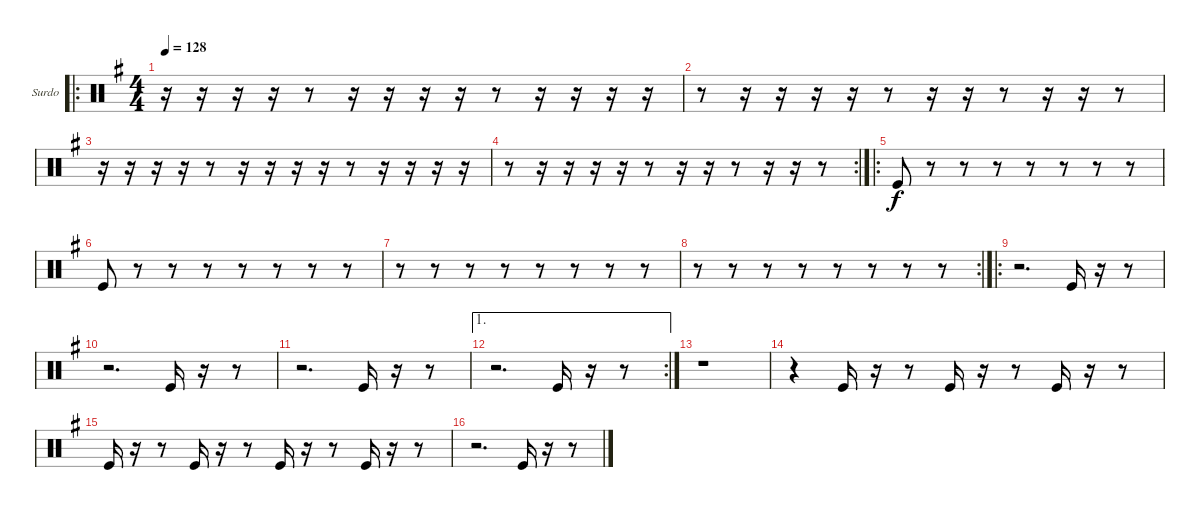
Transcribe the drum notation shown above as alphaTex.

\bracketExtendMode groupsimilarinstruments
\firstSystemTrackNameOrientation horizontal
\otherSystemsTrackNameOrientation horizontal
\track ("Surdo" "Surdo") {instrument percussion}
\staff {score}
\articulation defaults
\ro
\ts (4 4)
\tempo 128
\clef neutral
\ks eminor
r.16{dy fff} r.16 r.16 r.16 r.8 r.16 r.16 r.16 r.16 r.8 r.16 r.16 r.16 r.16 |
r.8 r.16 r.16 r.16 r.16 r.8 r.16 r.16 r.8 r.16 r.16 r.8 |
r.16 r.16 r.16 r.16 r.8 r.16 r.16 r.16 r.16 r.8 r.16 r.16 r.16 r.16 |
\rc 2
r.8 r.16 r.16 r.16 r.16 r.8 r.16 r.16 r.8 r.16 r.16 r.8 |
\ro "Kick (hit)".8{dy f}
r.8 r.8 r.8 r.8 r.8 r.8 r.8 |
"Kick (hit)".8 r.8 r.8 r.8 r.8 r.8 r.8 r.8 |
r.8 r.8 r.8 r.8 r.8 r.8 r.8 r.8 |
\rc 2
r.8 r.8 r.8 r.8 r.8 r.8 r.8 r.8 |
\ro
r.2{d} "Kick (hit)".16 r.16 r.8 |
r.2{d} "Kick (hit)".16 r.16 r.8 |
r.2{d} "Kick (hit)".16 r.16 r.8 |
\ae 1
\rc 2
r.2{d} "Kick (hit)".16 r.16 r.8 |
r.1 |
r.4 "Kick (hit)".16 r.16 r.8 "Kick (hit)".16 r.16 r.8 "Kick (hit)".16 r.16 r.8 |
"Kick (hit)".16 r.16 r.8 "Kick (hit)".16 r.16 r.8 "Kick (hit)".16 r.16 r.8 "Kick (hit)".16 r.16 r.8 |
r.2{d} "Kick (hit)".16 r.16 r.8
